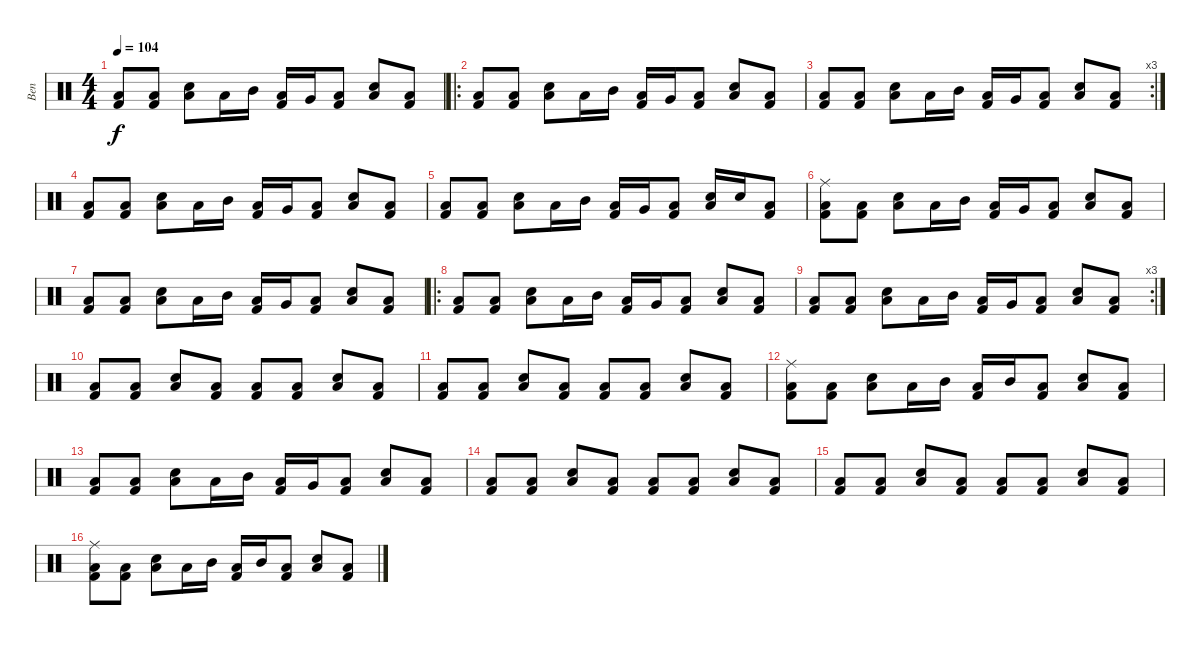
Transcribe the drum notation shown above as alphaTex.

\track ("Ben" "Ben") {instrument percussion}
\staff {score}
\articulation defaults
\ts (4 4)
\tempo 104
\clef neutral
\ks c
("Low Floor Tom (hit)" "Kick (hit) 2").8{dy f} ("Low Floor Tom (hit)" "Kick (hit) 2").8 ("Snare (hit) 2" "Low Floor Tom (hit)").8 "Low Floor Tom (hit)".16 "Mid Tom (hit)".16 ("Low Floor Tom (hit)" "Kick (hit) 2").16 "Very Low Tom (hit)".16 ("Low Floor Tom (hit)" "Kick (hit) 2").8 ("Snare (hit) 2" "Low Floor Tom (hit)").8 ("Low Floor Tom (hit)" "Kick (hit) 2").8 |
\ro
("Low Floor Tom (hit)" "Kick (hit) 2").8 ("Low Floor Tom (hit)" "Kick (hit) 2").8 ("Snare (hit) 2" "Low Floor Tom (hit)").8 "Low Floor Tom (hit)".16 "Mid Tom (hit)".16 ("Low Floor Tom (hit)" "Kick (hit) 2").16 "Very Low Tom (hit)".16 ("Low Floor Tom (hit)" "Kick (hit) 2").8 ("Snare (hit) 2" "Low Floor Tom (hit)").8 ("Low Floor Tom (hit)" "Kick (hit) 2").8 |
\rc 3
("Low Floor Tom (hit)" "Kick (hit) 2").8 ("Low Floor Tom (hit)" "Kick (hit) 2").8 ("Snare (hit) 2" "Low Floor Tom (hit)").8 "Low Floor Tom (hit)".16 "Mid Tom (hit)".16 ("Low Floor Tom (hit)" "Kick (hit) 2").16 "Very Low Tom (hit)".16 ("Low Floor Tom (hit)" "Kick (hit) 2").8 ("Snare (hit) 2" "Low Floor Tom (hit)").8 ("Low Floor Tom (hit)" "Kick (hit) 2").8 |
("Low Floor Tom (hit)" "Kick (hit) 2").8 ("Low Floor Tom (hit)" "Kick (hit) 2").8 ("Snare (hit) 2" "Low Floor Tom (hit)").8 "Low Floor Tom (hit)".16 "Mid Tom (hit)".16 ("Low Floor Tom (hit)" "Kick (hit) 2").16 "Very Low Tom (hit)".16 ("Low Floor Tom (hit)" "Kick (hit) 2").8 ("Snare (hit) 2" "Low Floor Tom (hit)").8 ("Low Floor Tom (hit)" "Kick (hit) 2").8 |
("Low Floor Tom (hit)" "Kick (hit) 2").8 ("Low Floor Tom (hit)" "Kick (hit) 2").8 ("Snare (hit) 2" "Low Floor Tom (hit)").8 "Low Floor Tom (hit)".16 "Mid Tom (hit)".16 ("Low Floor Tom (hit)" "Kick (hit) 2").16 "Very Low Tom (hit)".16 ("Low Floor Tom (hit)" "Kick (hit) 2").8 ("Snare (hit) 2" "Low Floor Tom (hit)").16 "Snare (hit) 2".16 ("Low Floor Tom (hit)" "Kick (hit) 2").8 |
("Ride (middle)" "Low Floor Tom (hit)" "Kick (hit) 2").8 ("Low Floor Tom (hit)" "Kick (hit) 2").8 ("Snare (hit) 2" "Low Floor Tom (hit)").8 "Low Floor Tom (hit)".16 "Mid Tom (hit)".16 ("Low Floor Tom (hit)" "Kick (hit) 2").16 "Very Low Tom (hit)".16 ("Low Floor Tom (hit)" "Kick (hit) 2").8 ("Snare (hit) 2" "Low Floor Tom (hit)").8 ("Low Floor Tom (hit)" "Kick (hit) 2").8 |
("Low Floor Tom (hit)" "Kick (hit) 2").8 ("Low Floor Tom (hit)" "Kick (hit) 2").8 ("Snare (hit) 2" "Low Floor Tom (hit)").8 "Low Floor Tom (hit)".16 "Mid Tom (hit)".16 ("Low Floor Tom (hit)" "Kick (hit) 2").16 "Very Low Tom (hit)".16 ("Low Floor Tom (hit)" "Kick (hit) 2").8 ("Snare (hit) 2" "Low Floor Tom (hit)").8 ("Low Floor Tom (hit)" "Kick (hit) 2").8 |
\ro
("Low Floor Tom (hit)" "Kick (hit) 2").8 ("Low Floor Tom (hit)" "Kick (hit) 2").8 ("Snare (hit) 2" "Low Floor Tom (hit)").8 "Low Floor Tom (hit)".16 "Mid Tom (hit)".16 ("Low Floor Tom (hit)" "Kick (hit) 2").16 "Very Low Tom (hit)".16 ("Low Floor Tom (hit)" "Kick (hit) 2").8 ("Snare (hit) 2" "Low Floor Tom (hit)").8 ("Low Floor Tom (hit)" "Kick (hit) 2").8 |
\rc 3
("Low Floor Tom (hit)" "Kick (hit) 2").8 ("Low Floor Tom (hit)" "Kick (hit) 2").8 ("Snare (hit) 2" "Low Floor Tom (hit)").8 "Low Floor Tom (hit)".16 "Mid Tom (hit)".16 ("Low Floor Tom (hit)" "Kick (hit) 2").16 "Very Low Tom (hit)".16 ("Low Floor Tom (hit)" "Kick (hit) 2").8 ("Snare (hit) 2" "Low Floor Tom (hit)").8 ("Low Floor Tom (hit)" "Kick (hit) 2").8 |
("Low Floor Tom (hit)" "Kick (hit) 2").8 ("Low Floor Tom (hit)" "Kick (hit) 2").8 ("Snare (hit) 2" "Low Floor Tom (hit)").8 ("Low Floor Tom (hit)" "Kick (hit) 2").8 ("Low Floor Tom (hit)" "Kick (hit) 2").8 ("Low Floor Tom (hit)" "Kick (hit) 2").8 ("Snare (hit) 2" "Low Floor Tom (hit)").8 ("Low Floor Tom (hit)" "Kick (hit) 2").8 |
("Low Floor Tom (hit)" "Kick (hit) 2").8 ("Low Floor Tom (hit)" "Kick (hit) 2").8 ("Snare (hit) 2" "Low Floor Tom (hit)").8 ("Low Floor Tom (hit)" "Kick (hit) 2").8 ("Low Floor Tom (hit)" "Kick (hit) 2").8 ("Low Floor Tom (hit)" "Kick (hit) 2").8 ("Snare (hit) 2" "Low Floor Tom (hit)").8 ("Low Floor Tom (hit)" "Kick (hit) 2").8 |
("Ride (middle)" "Low Floor Tom (hit)" "Kick (hit) 2").8 ("Low Floor Tom (hit)" "Kick (hit) 2").8 ("Snare (hit) 2" "Low Floor Tom (hit)").8 "Low Floor Tom (hit)".16 "Mid Tom (hit)".16 ("Low Floor Tom (hit)" "Kick (hit) 2").16 "Mid Tom (hit)".16 ("Low Floor Tom (hit)" "Kick (hit) 2").8 ("Snare (hit) 2" "Low Floor Tom (hit)").8 ("Low Floor Tom (hit)" "Kick (hit) 2").8 |
("Low Floor Tom (hit)" "Kick (hit) 2").8 ("Low Floor Tom (hit)" "Kick (hit) 2").8 ("Snare (hit) 2" "Low Floor Tom (hit)").8 "Low Floor Tom (hit)".16 "Mid Tom (hit)".16 ("Low Floor Tom (hit)" "Kick (hit) 2").16 "Very Low Tom (hit)".16 ("Low Floor Tom (hit)" "Kick (hit) 2").8 ("Snare (hit) 2" "Low Floor Tom (hit)").8 ("Low Floor Tom (hit)" "Kick (hit) 2").8 |
("Low Floor Tom (hit)" "Kick (hit) 2").8 ("Low Floor Tom (hit)" "Kick (hit) 2").8 ("Snare (hit) 2" "Low Floor Tom (hit)").8 ("Low Floor Tom (hit)" "Kick (hit) 2").8 ("Low Floor Tom (hit)" "Kick (hit) 2").8 ("Low Floor Tom (hit)" "Kick (hit) 2").8 ("Snare (hit) 2" "Low Floor Tom (hit)").8 ("Low Floor Tom (hit)" "Kick (hit) 2").8 |
("Low Floor Tom (hit)" "Kick (hit) 2").8 ("Low Floor Tom (hit)" "Kick (hit) 2").8 ("Snare (hit) 2" "Low Floor Tom (hit)").8 ("Low Floor Tom (hit)" "Kick (hit) 2").8 ("Low Floor Tom (hit)" "Kick (hit) 2").8 ("Low Floor Tom (hit)" "Kick (hit) 2").8 ("Snare (hit) 2" "Low Floor Tom (hit)").8 ("Low Floor Tom (hit)" "Kick (hit) 2").8 |
("Ride (middle)" "Low Floor Tom (hit)" "Kick (hit) 2").8 ("Low Floor Tom (hit)" "Kick (hit) 2").8 ("Snare (hit) 2" "Low Floor Tom (hit)").8 "Low Floor Tom (hit)".16 "Mid Tom (hit)".16 ("Low Floor Tom (hit)" "Kick (hit) 2").16 "Mid Tom (hit)".16 ("Low Floor Tom (hit)" "Kick (hit) 2").8 ("Snare (hit) 2" "Low Floor Tom (hit)").8 ("Low Floor Tom (hit)" "Kick (hit) 2").8
